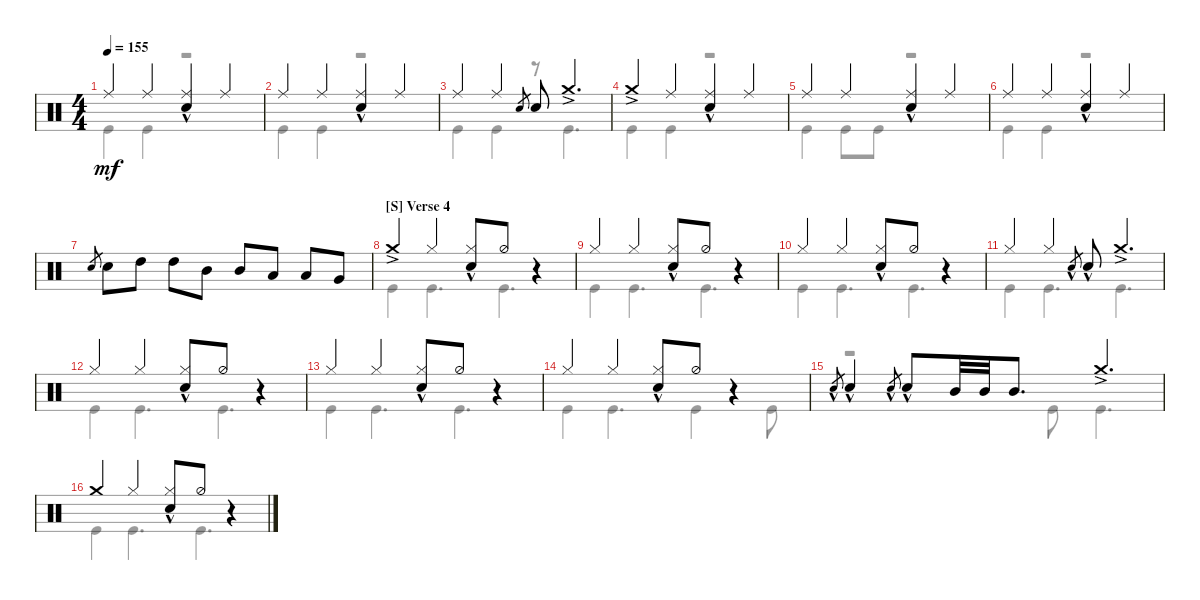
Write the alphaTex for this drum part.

\defaultSystemsLayout 4
\bracketExtendMode groupsimilarinstruments
\singleTrackTrackNamePolicy hidden
\multiTrackTrackNamePolicy hidden
\firstSystemTrackNameOrientation horizontal
\otherSystemsTrackNameOrientation horizontal
\track ("Nicko McBrain" "Drums") {instrument percussion}
\staff {score}
\articulation defaults
\voice
\ts (4 4)
\tempo 155
\clef neutral
\scale
1.02648
\ks c "Ride (middle)".4{dy mf} "Ride (middle)".4
("Snare (hit) 2"{hac} "Ride (middle)").4 "Ride (middle)".4 |
\scale
0.973518 "Ride (middle)".4 "Ride (middle)".4 ("Snare (hit) 2"{hac} "Ride (middle)").4 "Ride (middle)".4 |
\scale
1.02648 "Ride (middle)".4 "Ride (middle)".4 "Snare (hit) 2".8{gr} "Snare (hit) 2".8 "Crash medium (hit)"{ac}.4{d} |
\scale
0.973518 "Crash medium (hit)"{ac}.4 "Ride (middle)".4 ("Snare (hit) 2"{hac} "Ride (middle)").4 "Ride (middle)".4 |
\scale
1.02648 "Ride (middle)".4 "Ride (middle)".4 ("Snare (hit) 2"{hac} "Ride (middle)").4 "Ride (middle)".4 |
\scale
0.973518 "Ride (middle)".4 "Ride (middle)".4 ("Snare (hit) 2"{hac} "Ride (middle)").4 "Ride (middle)".4 |
\scale
1.02648 "Snare (hit) 2".8{gr} "Snare (hit) 2".8 "High Tom (hit)".8 "High Tom (hit)".8 "Mid Tom (hit)".8 "Mid Tom (hit)".8 "Low Tom (hit)".8 "Low Tom (hit)".8 "Very Low Tom (hit)".8 |
\section ("S" "Verse 4")
\scale
0.973518 "Crash medium (hit)"{ac}.4 "Hi-Hat (closed)".4 ("Hi-Hat (closed)" "Snare (hit) 2"{hac}).8 "Hi-Hat (half)".8 r.4 |
\scale
1.02648 "Hi-Hat (closed)".4 "Hi-Hat (closed)".4 ("Hi-Hat (closed)" "Snare (hit) 2"{hac}).8 "Hi-Hat (half)".8 r.4 |
\scale
0.973518 "Hi-Hat (closed)".4 "Hi-Hat (closed)".4 ("Hi-Hat (closed)" "Snare (hit) 2"{hac}).8 "Hi-Hat (half)".8 r.4 |
\scale
1.02648 "Hi-Hat (closed)".4 "Hi-Hat (closed)".4 "Snare (hit) 2"{hac}.8{gr} "Snare (hit) 2"{hac}.8 "Crash medium (hit)"{ac}.4{d} |
\scale
0.973518 "Hi-Hat (closed)".4 "Hi-Hat (closed)".4 ("Hi-Hat (closed)" "Snare (hit) 2"{hac}).8 "Hi-Hat (half)".8 r.4 |
\scale
1.02648 "Hi-Hat (closed)".4 "Hi-Hat (closed)".4 ("Hi-Hat (closed)" "Snare (hit) 2"{hac}).8 "Hi-Hat (half)".8 r.4 |
\scale
0.973518 "Hi-Hat (closed)".4 "Hi-Hat (closed)".4 ("Hi-Hat (closed)" "Snare (hit) 2"{hac}).8 "Hi-Hat (half)".8 r.4 |
\scale
1.02648 "Snare (hit) 2"{hac}.8{gr} "Snare (hit) 2"{hac}.4 "Snare (hit) 2"{hac}.8{gr} "Snare (hit) 2"{hac}.8 "Mid Tom (hit)".32 "Mid Tom (hit)".32 "Mid Tom (hit)".8{d} "Crash medium (hit)"{ac}.4{d} |
\scale
0.973518 "Crash medium (hit)".4 "Hi-Hat (closed)".4 ("Hi-Hat (closed)" "Snare (hit) 2"{hac}).8 "Hi-Hat (half)".8 r.4
\voice
\clef neutral
\ottava regular
\simile none
\scale
1.02648
\ks c "Kick (hit)".4{dy mf} "Kick (hit)".4
r.2 |
\scale
0.973518 "Kick (hit)".4 "Kick (hit)".4 r.2 |
\scale
1.02648 "Kick (hit)".4 "Kick (hit)".4 r.8 "Kick (hit)".4{d} |
\scale
0.973518 "Kick (hit)".4 "Kick (hit)".4 r.2 |
\scale
1.02648 "Kick (hit)".4 "Kick (hit)".8 "Kick (hit)".8 r.2 |
\scale
0.973518 "Kick (hit)".4 "Kick (hit)".4 r.2 |
\scale
1.02648 |
\scale
0.973518 "Kick (hit)".4 "Kick (hit)".4{d} "Kick (hit)".4{d} |
\scale
1.02648 "Kick (hit)".4 "Kick (hit)".4{d} "Kick (hit)".4{d} |
\scale
0.973518 "Kick (hit)".4 "Kick (hit)".4{d} "Kick (hit)".4{d} |
\scale
1.02648 "Kick (hit)".4 "Kick (hit)".4{d} "Kick (hit)".4{d} |
\scale
0.973518 "Kick (hit)".4 "Kick (hit)".4{d} "Kick (hit)".4{d} |
\scale
1.02648 "Kick (hit)".4 "Kick (hit)".4{d} "Kick (hit)".4{d} |
\scale
0.973518 "Kick (hit)".4 "Kick (hit)".4{d} "Kick (hit)".4 "Kick (hit)".8 |
\scale
1.02648 r.2 "Kick (hit)".8 "Kick (hit)".4{d} |
\scale
0.973518 "Kick (hit)".4 "Kick (hit)".4{d} "Kick (hit)".4{d}
